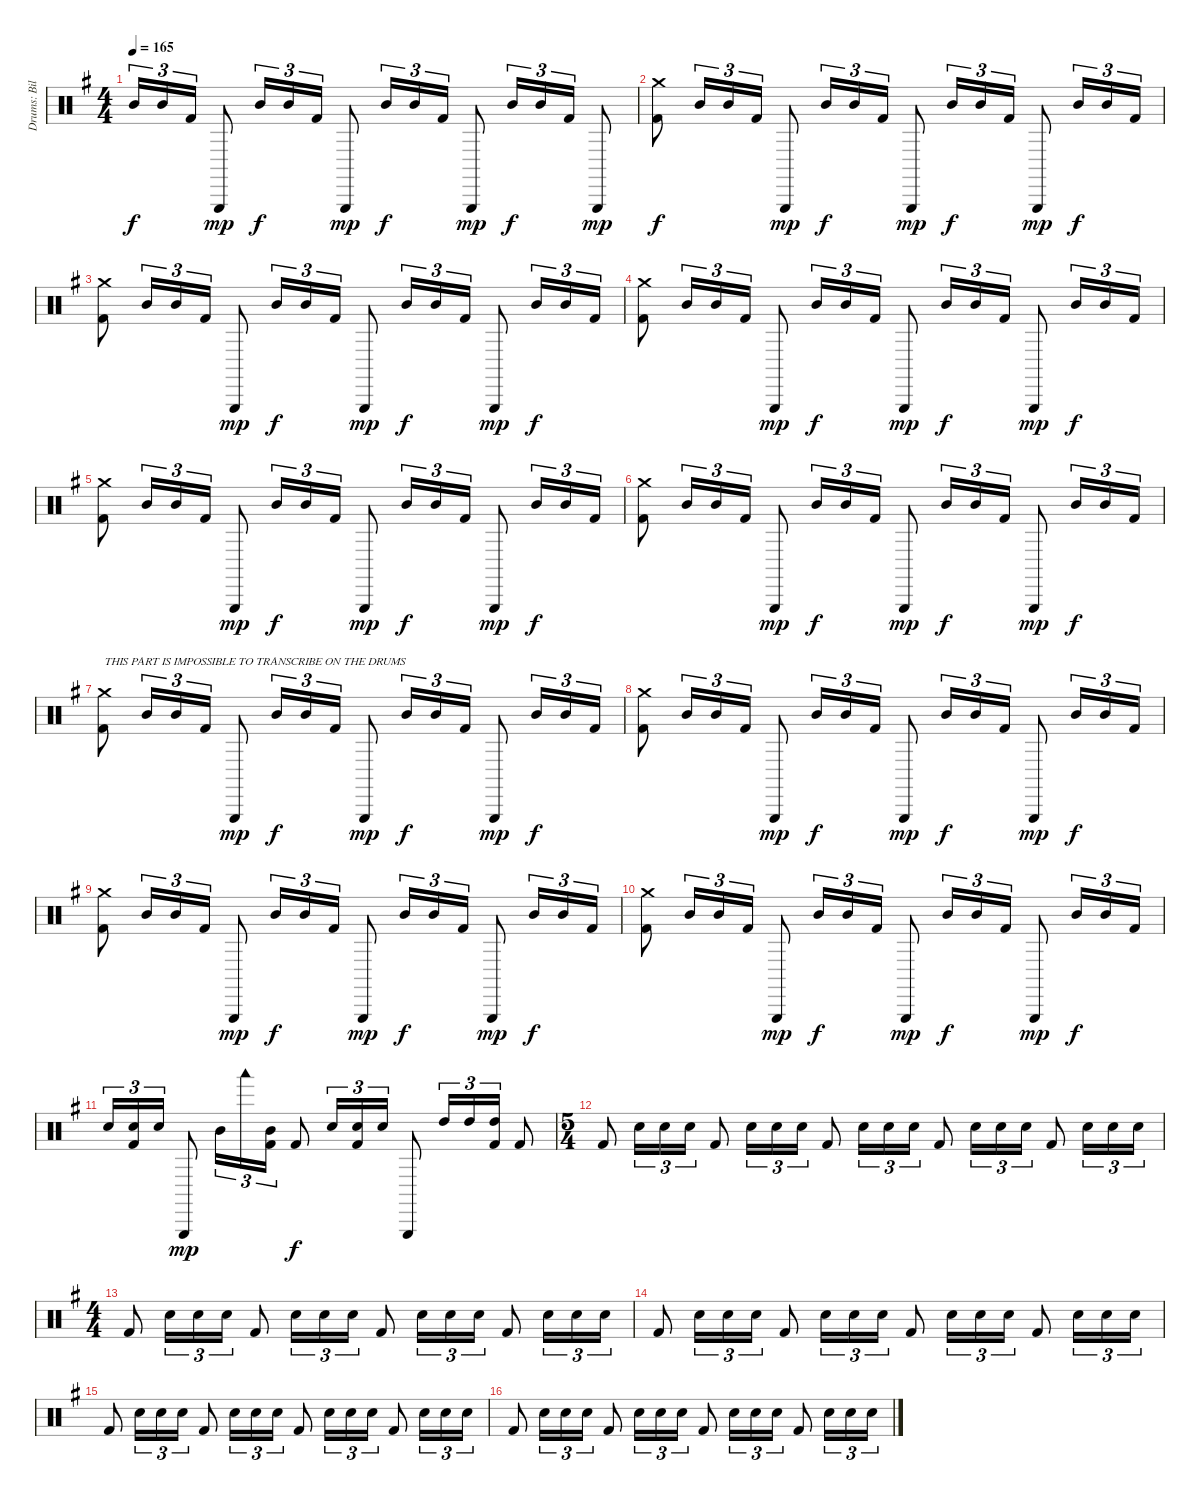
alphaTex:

\track ("Drums: Bill" "Drums: Bil") {instrument percussion}
\staff {score}
\articulation defaults
\ts (4 4)
\tempo 165
\clef neutral
\ks g "Mid Tom (hit)".16{tu (3 2) dy f} "Mid Tom (hit)".16{tu (3 2)} "Kick (hit) 2".16{tu (3 2)} "Triangle (hit)".8{dy mp} "Mid Tom (hit)".16{tu (3 2) dy f} "Mid Tom (hit)".16{tu (3 2)} "Kick (hit) 2".16{tu (3 2)} "Triangle (hit)".8{dy mp} "Mid Tom (hit)".16{tu (3 2) dy f} "Mid Tom (hit)".16{tu (3 2)} "Kick (hit) 2".16{tu (3 2)} "Triangle (hit)".8{dy mp} "Mid Tom (hit)".16{tu (3 2) dy f} "Mid Tom (hit)".16{tu (3 2)} "Kick (hit) 2".16{tu (3 2)} "Triangle (hit)".8{dy mp}
|
("Crash medium (hit)" "Kick (hit) 2").8{dy f} "Mid Tom (hit)".16{tu (3 2)} "Mid Tom (hit)".16{tu (3 2)} "Kick (hit) 2".16{tu (3 2)} "Triangle (hit)".8{dy mp} "Mid Tom (hit)".16{tu (3 2) dy f} "Mid Tom (hit)".16{tu (3 2)} "Kick (hit) 2".16{tu (3 2)} "Triangle (hit)".8{dy mp} "Mid Tom (hit)".16{tu (3 2) dy f} "Mid Tom (hit)".16{tu (3 2)} "Kick (hit) 2".16{tu (3 2)} "Triangle (hit)".8{dy mp} "Mid Tom (hit)".16{tu (3 2) dy f} "Mid Tom (hit)".16{tu (3 2)} "Kick (hit) 2".16{tu (3 2)} |
("Crash medium (hit)" "Kick (hit) 2").8 "Mid Tom (hit)".16{tu (3 2)} "Mid Tom (hit)".16{tu (3 2)} "Kick (hit) 2".16{tu (3 2)} "Triangle (hit)".8{dy mp} "Mid Tom (hit)".16{tu (3 2) dy f} "Mid Tom (hit)".16{tu (3 2)} "Kick (hit) 2".16{tu (3 2)} "Triangle (hit)".8{dy mp} "Mid Tom (hit)".16{tu (3 2) dy f} "Mid Tom (hit)".16{tu (3 2)} "Kick (hit) 2".16{tu (3 2)} "Triangle (hit)".8{dy mp} "Mid Tom (hit)".16{tu (3 2) dy f} "Mid Tom (hit)".16{tu (3 2)} "Kick (hit) 2".16{tu (3 2)} |
("Crash medium (hit)" "Kick (hit) 2").8 "Mid Tom (hit)".16{tu (3 2)} "Mid Tom (hit)".16{tu (3 2)} "Kick (hit) 2".16{tu (3 2)} "Triangle (hit)".8{dy mp} "Mid Tom (hit)".16{tu (3 2) dy f} "Mid Tom (hit)".16{tu (3 2)} "Kick (hit) 2".16{tu (3 2)} "Triangle (hit)".8{dy mp} "Mid Tom (hit)".16{tu (3 2) dy f} "Mid Tom (hit)".16{tu (3 2)} "Kick (hit) 2".16{tu (3 2)} "Triangle (hit)".8{dy mp} "Mid Tom (hit)".16{tu (3 2) dy f} "Mid Tom (hit)".16{tu (3 2)} "Kick (hit) 2".16{tu (3 2)} |
("Crash medium (hit)" "Kick (hit) 2").8 "Mid Tom (hit)".16{tu (3 2)} "Mid Tom (hit)".16{tu (3 2)} "Kick (hit) 2".16{tu (3 2)} "Triangle (hit)".8{dy mp} "Mid Tom (hit)".16{tu (3 2) dy f} "Mid Tom (hit)".16{tu (3 2)} "Kick (hit) 2".16{tu (3 2)} "Triangle (hit)".8{dy mp} "Mid Tom (hit)".16{tu (3 2) dy f} "Mid Tom (hit)".16{tu (3 2)} "Kick (hit) 2".16{tu (3 2)} "Triangle (hit)".8{dy mp} "Mid Tom (hit)".16{tu (3 2) dy f} "Mid Tom (hit)".16{tu (3 2)} "Kick (hit) 2".16{tu (3 2)} |
("Crash medium (hit)" "Kick (hit) 2").8 "Mid Tom (hit)".16{tu (3 2)} "Mid Tom (hit)".16{tu (3 2)} "Kick (hit) 2".16{tu (3 2)} "Triangle (hit)".8{dy mp} "Mid Tom (hit)".16{tu (3 2) dy f} "Mid Tom (hit)".16{tu (3 2)} "Kick (hit) 2".16{tu (3 2)} "Triangle (hit)".8{dy mp} "Mid Tom (hit)".16{tu (3 2) dy f} "Mid Tom (hit)".16{tu (3 2)} "Kick (hit) 2".16{tu (3 2)} "Triangle (hit)".8{dy mp} "Mid Tom (hit)".16{tu (3 2) dy f} "Mid Tom (hit)".16{tu (3 2)} "Kick (hit) 2".16{tu (3 2)} |
("Crash medium (hit)" "Kick (hit) 2").8{txt "THIS PART IS IMPOSSIBLE TO TRANSCRIBE ON THE DRUMS"} "Mid Tom (hit)".16{tu (3 2)} "Mid Tom (hit)".16{tu (3 2)} "Kick (hit) 2".16{tu (3 2)} "Triangle (hit)".8{dy mp} "Mid Tom (hit)".16{tu (3 2) dy f} "Mid Tom (hit)".16{tu (3 2)} "Kick (hit) 2".16{tu (3 2)} "Triangle (hit)".8{dy mp} "Mid Tom (hit)".16{tu (3 2) dy f} "Mid Tom (hit)".16{tu (3 2)} "Kick (hit) 2".16{tu (3 2)} "Triangle (hit)".8{dy mp} "Mid Tom (hit)".16{tu (3 2) dy f} "Mid Tom (hit)".16{tu (3 2)} "Kick (hit) 2".16{tu (3 2)} |
("Crash medium (hit)" "Kick (hit) 2").8 "Mid Tom (hit)".16{tu (3 2)} "Mid Tom (hit)".16{tu (3 2)} "Kick (hit) 2".16{tu (3 2)} "Triangle (hit)".8{dy mp} "Mid Tom (hit)".16{tu (3 2) dy f} "Mid Tom (hit)".16{tu (3 2)} "Kick (hit) 2".16{tu (3 2)} "Triangle (hit)".8{dy mp} "Mid Tom (hit)".16{tu (3 2) dy f} "Mid Tom (hit)".16{tu (3 2)} "Kick (hit) 2".16{tu (3 2)} "Triangle (hit)".8{dy mp} "Mid Tom (hit)".16{tu (3 2) dy f} "Mid Tom (hit)".16{tu (3 2)} "Kick (hit) 2".16{tu (3 2)} |
("Crash medium (hit)" "Kick (hit) 2").8 "Mid Tom (hit)".16{tu (3 2)} "Mid Tom (hit)".16{tu (3 2)} "Kick (hit) 2".16{tu (3 2)} "Triangle (hit)".8{dy mp} "Mid Tom (hit)".16{tu (3 2) dy f} "Mid Tom (hit)".16{tu (3 2)} "Kick (hit) 2".16{tu (3 2)} "Triangle (hit)".8{dy mp} "Mid Tom (hit)".16{tu (3 2) dy f} "Mid Tom (hit)".16{tu (3 2)} "Kick (hit) 2".16{tu (3 2)} "Triangle (hit)".8{dy mp} "Mid Tom (hit)".16{tu (3 2) dy f} "Mid Tom (hit)".16{tu (3 2)} "Kick (hit) 2".16{tu (3 2)} |
("Crash medium (hit)" "Kick (hit) 2").8 "Mid Tom (hit)".16{tu (3 2)} "Mid Tom (hit)".16{tu (3 2)} "Kick (hit) 2".16{tu (3 2)} "Triangle (hit)".8{dy mp} "Mid Tom (hit)".16{tu (3 2) dy f} "Mid Tom (hit)".16{tu (3 2)} "Kick (hit) 2".16{tu (3 2)} "Triangle (hit)".8{dy mp} "Mid Tom (hit)".16{tu (3 2) dy f} "Mid Tom (hit)".16{tu (3 2)} "Kick (hit) 2".16{tu (3 2)} "Triangle (hit)".8{dy mp} "Mid Tom (hit)".16{tu (3 2) dy f} "Mid Tom (hit)".16{tu (3 2)} "Kick (hit) 2".16{tu (3 2)} |
"Electric Snare (hit)".16{tu (3 2)} ("Electric Snare (hit)" "Kick (hit) 2").16{tu (3 2)} "Electric Snare (hit)".16{tu (3 2)} "Triangle (hit)".8{dy mp} "Mid Tom (hit)".16{tu (3 2)} "Woodblock low (hit)".16{tu (3 2)} ("Mid Tom (hit)" "Kick (hit) 2").16{tu (3 2)} "Kick (hit) 2".8{dy f} "Electric Snare (hit)".16{tu (3 2)} ("Electric Snare (hit)" "Kick (hit) 2").16{tu (3 2)} "Electric Snare (hit)".16{tu (3 2)} "Triangle (hit)".8 "High Tom (hit)".16{tu (3 2)} "High Tom (hit)".16{tu (3 2)} ("High Tom (hit)" "Kick (hit) 2").16{tu (3 2)} "Kick (hit) 2".8 |
\ts (5 4)
"Kick (hit) 2".8 "Electric Snare (hit)".16{tu (3 2)} "Electric Snare (hit)".16{tu (3 2)} "Electric Snare (hit)".16{tu (3 2)} "Kick (hit) 2".8 "Electric Snare (hit)".16{tu (3 2)} "Electric Snare (hit)".16{tu (3 2)} "Electric Snare (hit)".16{tu (3 2)} "Kick (hit) 2".8 "Electric Snare (hit)".16{tu (3 2)} "Electric Snare (hit)".16{tu (3 2)} "Electric Snare (hit)".16{tu (3 2)} "Kick (hit) 2".8 "Electric Snare (hit)".16{tu (3 2)} "Electric Snare (hit)".16{tu (3 2)} "Electric Snare (hit)".16{tu (3 2)} "Kick (hit) 2".8 "Electric Snare (hit)".16{tu (3 2)} "Electric Snare (hit)".16{tu (3 2)} "Electric Snare (hit)".16{tu (3 2)} |
\ts (4 4)
"Kick (hit) 2".8 "Electric Snare (hit)".16{tu (3 2)} "Electric Snare (hit)".16{tu (3 2)} "Electric Snare (hit)".16{tu (3 2)} "Kick (hit) 2".8 "Electric Snare (hit)".16{tu (3 2)} "Electric Snare (hit)".16{tu (3 2)} "Electric Snare (hit)".16{tu (3 2)} "Kick (hit) 2".8 "Electric Snare (hit)".16{tu (3 2)} "Electric Snare (hit)".16{tu (3 2)} "Electric Snare (hit)".16{tu (3 2)} "Kick (hit) 2".8 "Electric Snare (hit)".16{tu (3 2)} "Electric Snare (hit)".16{tu (3 2)} "Electric Snare (hit)".16{tu (3 2)} |
"Kick (hit) 2".8{volume 0} "Electric Snare (hit)".16{tu (3 2)} "Electric Snare (hit)".16{tu (3 2)} "Electric Snare (hit)".16{tu (3 2)} "Kick (hit) 2".8 "Electric Snare (hit)".16{tu (3 2)} "Electric Snare (hit)".16{tu (3 2)} "Electric Snare (hit)".16{tu (3 2)} "Kick (hit) 2".8 "Electric Snare (hit)".16{tu (3 2)} "Electric Snare (hit)".16{tu (3 2)} "Electric Snare (hit)".16{tu (3 2)} "Kick (hit) 2".8 "Electric Snare (hit)".16{tu (3 2)} "Electric Snare (hit)".16{tu (3 2)} "Electric Snare (hit)".16{tu (3 2)} |
"Kick (hit) 2".8 "Electric Snare (hit)".16{tu (3 2)} "Electric Snare (hit)".16{tu (3 2)} "Electric Snare (hit)".16{tu (3 2)} "Kick (hit) 2".8 "Electric Snare (hit)".16{tu (3 2)} "Electric Snare (hit)".16{tu (3 2)} "Electric Snare (hit)".16{tu (3 2)} "Kick (hit) 2".8 "Electric Snare (hit)".16{tu (3 2)} "Electric Snare (hit)".16{tu (3 2)} "Electric Snare (hit)".16{tu (3 2)} "Kick (hit) 2".8 "Electric Snare (hit)".16{tu (3 2)} "Electric Snare (hit)".16{tu (3 2)} "Electric Snare (hit)".16{tu (3 2)} |
"Kick (hit) 2".8 "Electric Snare (hit)".16{tu (3 2)} "Electric Snare (hit)".16{tu (3 2)} "Electric Snare (hit)".16{tu (3 2)} "Kick (hit) 2".8 "Electric Snare (hit)".16{tu (3 2)} "Electric Snare (hit)".16{tu (3 2)} "Electric Snare (hit)".16{tu (3 2)} "Kick (hit) 2".8 "Electric Snare (hit)".16{tu (3 2)} "Electric Snare (hit)".16{tu (3 2)} "Electric Snare (hit)".16{tu (3 2)} "Kick (hit) 2".8 "Electric Snare (hit)".16{tu (3 2)} "Electric Snare (hit)".16{tu (3 2)} "Electric Snare (hit)".16{tu (3 2)}
